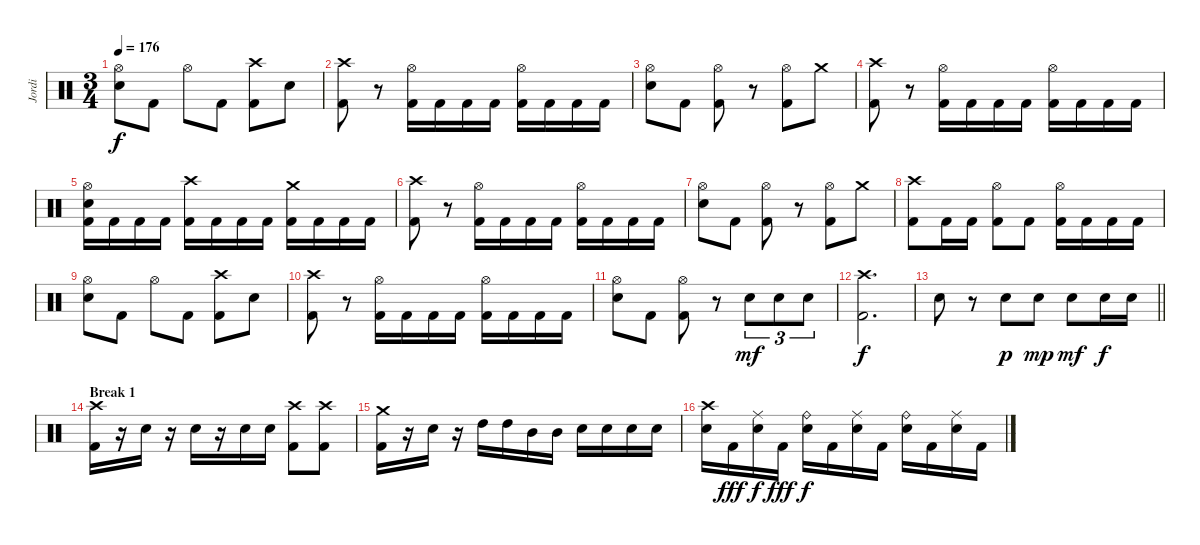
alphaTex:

\track ("Jordi" "Jordi") {instrument percussion}
\staff {score}
\articulation defaults
\ts (3 4)
\tempo 176
\clef neutral
\ks c
("Hi-Hat (open)" "Snare (hit) 2").8{dy f} "Kick (hit) 2".8 "Hi-Hat (open)".8 "Kick (hit) 2".8 ("Crash high (hit)" "Kick (hit) 2").8 "Snare (hit) 2".8 |
("Crash high (hit)" "Kick (hit) 2").8 r.8 ("Hi-Hat (open)" "Kick (hit) 2").16 "Kick (hit) 2".16 "Kick (hit) 2".16 "Kick (hit) 2".16 ("Hi-Hat (open)" "Kick (hit) 2").16 "Kick (hit) 2".16 "Kick (hit) 2".16 "Kick (hit) 2".16 |
("Hi-Hat (open)" "Snare (hit) 2").8 "Kick (hit) 2".8 ("Hi-Hat (open)" "Kick (hit) 2").8 r.8 ("Hi-Hat (open)" "Kick (hit) 2").8 "Crash medium (hit)".8 |
("Crash high (hit)" "Kick (hit) 2").8 r.8 ("Hi-Hat (open)" "Kick (hit) 2").16 "Kick (hit) 2".16 "Kick (hit) 2".16 "Kick (hit) 2".16 ("Hi-Hat (open)" "Kick (hit) 2").16 "Kick (hit) 2".16 "Kick (hit) 2".16 "Kick (hit) 2".16 |
("Hi-Hat (open)" "Snare (hit) 2" "Kick (hit) 2").16 "Kick (hit) 2".16 "Kick (hit) 2".16 "Kick (hit) 2".16 ("Crash high (hit)" "Kick (hit) 2").16 "Kick (hit) 2".16 "Kick (hit) 2".16 "Kick (hit) 2".16 ("Crash medium (hit)" "Kick (hit) 2").16 "Kick (hit) 2".16 "Kick (hit) 2".16 "Kick (hit) 2".16 |
("Crash high (hit)" "Kick (hit) 2").8 r.8 ("Hi-Hat (open)" "Kick (hit) 2").16 "Kick (hit) 2".16 "Kick (hit) 2".16 "Kick (hit) 2".16 ("Hi-Hat (open)" "Kick (hit) 2").16 "Kick (hit) 2".16 "Kick (hit) 2".16 "Kick (hit) 2".16 |
("Hi-Hat (open)" "Snare (hit) 2").8 "Kick (hit) 2".8 ("Hi-Hat (open)" "Kick (hit) 2").8 r.8 ("Hi-Hat (open)" "Kick (hit) 2").8 "Crash medium (hit)".8 |
("Crash high (hit)" "Kick (hit) 2").8 "Kick (hit) 2".16 "Kick (hit) 2".16 ("Hi-Hat (open)" "Kick (hit) 2").8 "Kick (hit) 2".8 ("Hi-Hat (open)" "Kick (hit) 2").16 "Kick (hit) 2".16 "Kick (hit) 2".16 "Kick (hit) 2".16 |
("Hi-Hat (open)" "Snare (hit) 2").8 "Kick (hit) 2".8 "Hi-Hat (open)".8 "Kick (hit) 2".8 ("Crash high (hit)" "Kick (hit) 2").8 "Snare (hit) 2".8 |
("Crash high (hit)" "Kick (hit) 2").8 r.8 ("Hi-Hat (open)" "Kick (hit) 2").16 "Kick (hit) 2".16 "Kick (hit) 2".16 "Kick (hit) 2".16 ("Hi-Hat (open)" "Kick (hit) 2").16 "Kick (hit) 2".16 "Kick (hit) 2".16 "Kick (hit) 2".16 |
("Hi-Hat (open)" "Snare (hit) 2").8 "Kick (hit) 2".8 ("Hi-Hat (open)" "Kick (hit) 2").8 r.8 "Snare (hit) 2".8{tu (3 2) dy mf} "Snare (hit) 2".8{tu (3 2)} "Snare (hit) 2".8{tu (3 2)} |
("Crash high (hit)" "Kick (hit) 2").2{d dy f} |
\barLineRight lightlight "Snare (hit) 2".8
r.8 "Snare (hit) 2".8{dy p} "Snare (hit) 2".8{dy mp} "Snare (hit) 2".8{dy mf} "Snare (hit) 2".16{dy f} "Snare (hit) 2".16 |
\section ("" "Break 1")
("Crash high (hit)" "Kick (hit) 2").16 r.16 "Snare (hit) 2".16 r.16 "Snare (hit) 2".16 r.16 "Snare (hit) 2".16 "Snare (hit) 2".16 ("Crash high (hit)" "Kick (hit) 2").8 ("Crash high (hit)" "Kick (hit) 2").8 |
("Crash medium (hit)" "Kick (hit) 2").16 r.16 "Snare (hit) 2".16 r.16 "High Tom (hit)".16 "High Tom (hit)".16 "Mid Tom (hit)".16 "Mid Tom (hit)".16 "Snare (hit) 2".16 "Snare (hit) 2".16 "Snare (hit) 2".16 "Snare (hit) 2".16 |
("Crash high (hit)" "Snare (hit) 2").16 "Kick (hit) 2".16{dy fff} ("Ride (middle)" "Snare (hit) 2").16{dy f} "Kick (hit) 2".16{dy fff} ("Ride (bell)" "Snare (hit) 2").16{dy f} "Kick (hit) 2".16 ("Ride (middle)" "Snare (hit) 2").16 "Kick (hit) 2".16 ("Ride (bell)" "Snare (hit) 2").16 "Kick (hit) 2".16 ("Ride (middle)" "Snare (hit) 2").16 "Kick (hit) 2".16
